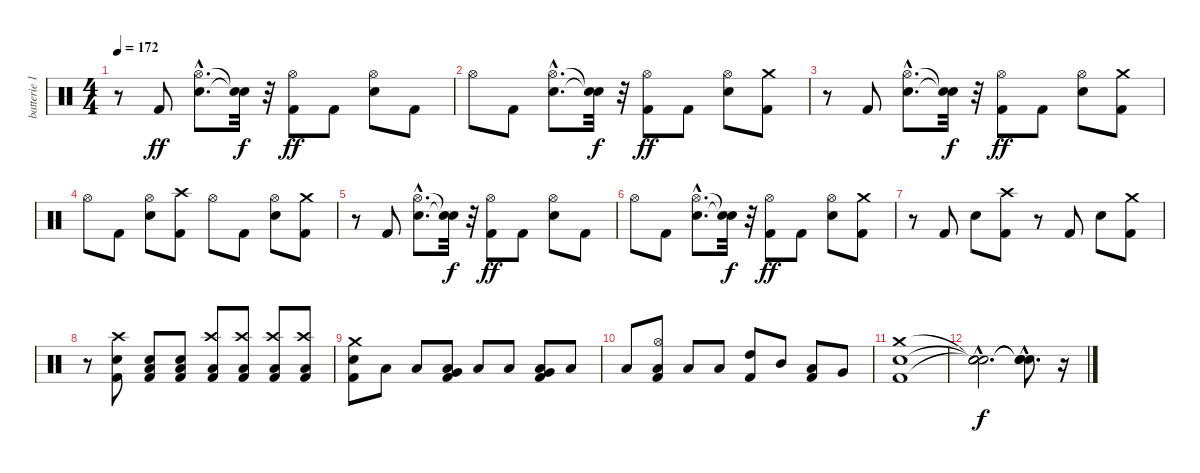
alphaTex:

\track ("batterie 1" "batterie 1") {instrument percussion}
\staff {score}
\articulation defaults
\ts (4 4)
\tempo 172
\clef neutral
\ks c
r.8{dy ff} "Kick (hit) 2".8 ("Electric Snare (hit)"{hac} "Hi-Hat (open)"{hac}).8{d} ("Snare (hit)"{t} "Snare (hit)"{t}).32{dy f} r.32 ("Kick (hit) 2" "Hi-Hat (open)").8{dy ff} "Kick (hit) 2".8 ("Electric Snare (hit)" "Hi-Hat (open)").8 "Kick (hit) 2".8 |
"Hi-Hat (open)".8 "Kick (hit) 2".8 ("Electric Snare (hit)"{hac} "Hi-Hat (open)"{hac}).8{d} ("Snare (hit)"{t} "Snare (hit)"{t}).32{dy f} r.32 ("Kick (hit) 2" "Hi-Hat (open)").8{dy ff} "Kick (hit) 2".8 ("Electric Snare (hit)" "Hi-Hat (open)").8 ("Kick (hit) 2" "Crash medium (hit)").8 |
r.8 "Kick (hit) 2".8 ("Electric Snare (hit)"{hac} "Hi-Hat (open)"{hac}).8{d} ("Snare (hit)"{t} "Snare (hit)"{t}).32{dy f} r.32 ("Kick (hit) 2" "Hi-Hat (open)").8{dy ff} "Kick (hit) 2".8 ("Electric Snare (hit)" "Hi-Hat (open)").8 ("Kick (hit) 2" "Crash medium (hit)").8 |
"Hi-Hat (open)".8 "Kick (hit) 2".8 ("Electric Snare (hit)" "Hi-Hat (open)").8 ("Kick (hit) 2" "Crash high (hit)").8 "Hi-Hat (open)".8 "Kick (hit) 2".8 ("Electric Snare (hit)" "Hi-Hat (open)").8 ("Kick (hit) 2" "Crash medium (hit)").8 |
r.8 "Kick (hit) 2".8 ("Electric Snare (hit)"{hac} "Hi-Hat (open)"{hac}).8{d} ("Snare (hit)"{t} "Snare (hit)"{t}).32{dy f} r.32 ("Kick (hit) 2" "Hi-Hat (open)").8{dy ff} "Kick (hit) 2".8 ("Electric Snare (hit)" "Hi-Hat (open)").8 "Kick (hit) 2".8 |
"Hi-Hat (open)".8 "Kick (hit) 2".8 ("Electric Snare (hit)"{hac} "Hi-Hat (open)"{hac}).8{d} ("Snare (hit)"{t} "Snare (hit)"{t}).32{dy f} r.32 ("Kick (hit) 2" "Hi-Hat (open)").8{dy ff} "Kick (hit) 2".8 ("Electric Snare (hit)" "Hi-Hat (open)").8 ("Kick (hit) 2" "Crash medium (hit)").8 |
r.8 "Kick (hit) 2".8 "Electric Snare (hit)".8 ("Kick (hit) 2" "Crash high (hit)").8 r.8 "Kick (hit) 2".8 "Electric Snare (hit)".8 ("Kick (hit) 2" "Crash medium (hit)").8 |
r.8 ("Kick (hit) 2" "Electric Snare (hit)" "Crash high (hit)").8 ("Kick (hit) 2" "Electric Snare (hit)" "Low Floor Tom (hit)").8 ("Kick (hit) 2" "Electric Snare (hit)" "Low Floor Tom (hit)").8 ("Kick (hit) 2" "Low Floor Tom (hit)" "Crash high (hit)").8 ("Kick (hit) 2" "Low Floor Tom (hit)" "Crash high (hit)").8 ("Kick (hit) 2" "Low Floor Tom (hit)" "Crash high (hit)").8 ("Kick (hit) 2" "Low Floor Tom (hit)" "Crash high (hit)").8 |
("Kick (hit) 2" "Electric Snare (hit)" "Crash medium (hit)").8 "Low Floor Tom (hit)".8 "Low Floor Tom (hit)".8 ("Kick (hit) 2" "Low Floor Tom (hit)" "Very Low Tom (hit)").8 "Low Floor Tom (hit)".8 "Low Floor Tom (hit)".8 ("Kick (hit) 2" "Low Floor Tom (hit)" "Very Low Tom (hit)").8 "Low Floor Tom (hit)".8 |
"Low Floor Tom (hit)".8 ("Kick (hit) 2" "Low Floor Tom (hit)" "Hi-Hat (open)").8 "Low Floor Tom (hit)".8 "Low Floor Tom (hit)".8 ("Kick (hit) 2" "High Tom (hit)").8 "Mid Tom (hit)".8 ("Kick (hit) 2" "Low Tom (hit)").8 "Very Low Tom (hit)".8 |
("Kick (hit) 2" "Electric Snare (hit)" "Crash medium (hit)").1 |
("Snare (hit)"{hac t} "Snare (hit)"{hac t} "Snare (hit)"{hac t}).2{d dy f} ("Snare (hit)"{hac t} "Snare (hit)"{hac t} "Snare (hit)"{hac t}).8{d} r.16
